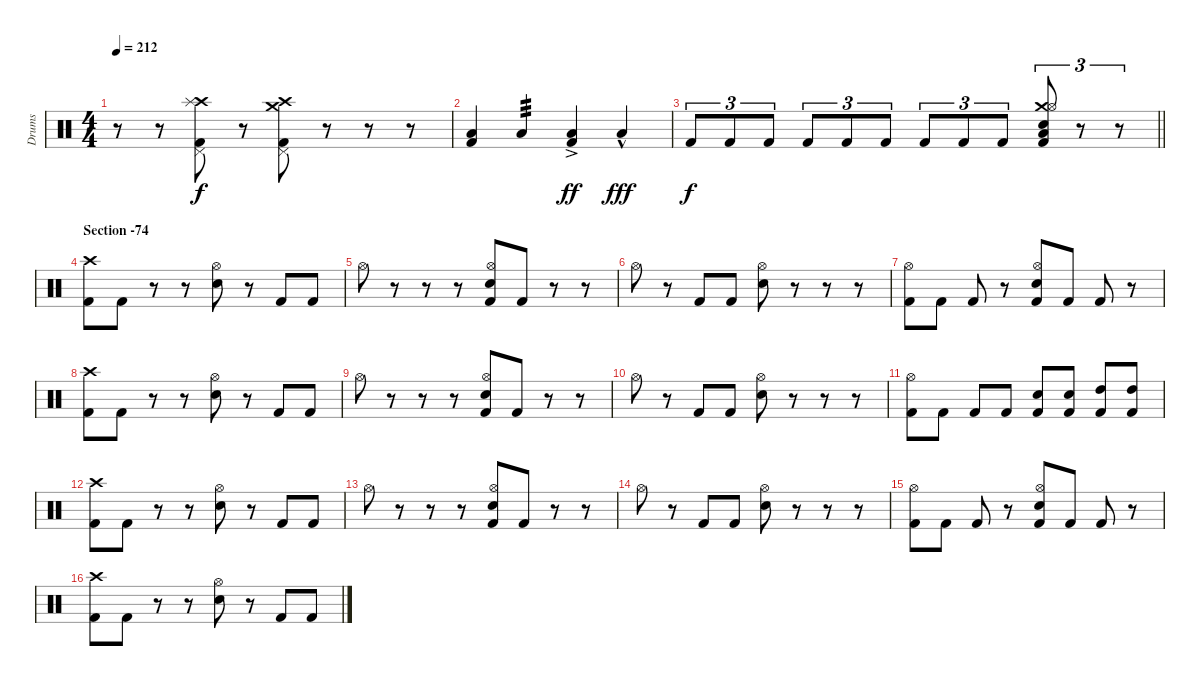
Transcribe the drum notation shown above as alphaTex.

\track ("Drums" "Drums") {instrument percussion}
\staff {score}
\articulation defaults
\ts (4 4)
\tempo 212
\clef neutral
\ks c
r.8{dy f} r.8 ("Crash high (hit)" "Splash (hit)" "Pedal Hi-Hat (hit)" "Kick (hit) 2").8 r.8 ("Crash medium (hit)" "Crash high (hit)" "Pedal Hi-Hat (hit)" "Kick (hit) 2").8 r.8 r.8 r.8 |
("Low Tom (hit)" "Kick (hit) 2").4 "Low Tom (hit)".4{tp 3} ("Low Tom (hit)"{ac} "Kick (hit) 2").4{dy ff} "Low Tom (hit)"{hac}.4{dy fff} |
\barLineRight lightlight "Kick (hit) 2".8{tu (3 2) dy f} "Kick (hit) 2".8{tu (3 2)} "Kick (hit) 2".8{tu (3 2)} "Kick (hit) 2".8{tu (3 2)} "Kick (hit) 2".8{tu (3 2)} "Kick (hit) 2".8{tu (3 2)} "Kick (hit) 2".8{tu (3 2)} "Kick (hit) 2".8{tu (3 2)} "Kick (hit) 2".8{tu (3 2)}
("Crash medium (hit)" "Hi-Hat (open)" "Snare (hit) 2" "Low Tom (hit)" "Kick (hit) 2").8{tu (3 2)} r.8{tu (3 2)} r.8{tu (3 2)} |
\section ("" "Section -74")
("Crash high (hit)" "Kick (hit) 2").8 "Kick (hit) 2".8 r.8 r.8 ("Hi-Hat (open)" "Snare (hit) 2").8 r.8 "Kick (hit) 2".8 "Kick (hit) 2".8 |
"Hi-Hat (open)".8 r.8 r.8 r.8 ("Hi-Hat (open)" "Snare (hit) 2" "Kick (hit) 2").8 "Kick (hit) 2".8 r.8 r.8 |
"Hi-Hat (open)".8 r.8 "Kick (hit) 2".8 "Kick (hit) 2".8 ("Hi-Hat (open)" "Snare (hit) 2").8 r.8 r.8 r.8 |
("Hi-Hat (open)" "Kick (hit) 2").8 "Kick (hit) 2".8 "Kick (hit) 2".8 r.8 ("Hi-Hat (open)" "Snare (hit) 2" "Kick (hit) 2").8 "Kick (hit) 2".8 "Kick (hit) 2".8 r.8 |
("Crash high (hit)" "Kick (hit) 2").8 "Kick (hit) 2".8 r.8 r.8 ("Hi-Hat (open)" "Snare (hit) 2").8 r.8 "Kick (hit) 2".8 "Kick (hit) 2".8 |
"Hi-Hat (open)".8 r.8 r.8 r.8 ("Hi-Hat (open)" "Snare (hit) 2" "Kick (hit) 2").8 "Kick (hit) 2".8 r.8 r.8 |
"Hi-Hat (open)".8 r.8 "Kick (hit) 2".8 "Kick (hit) 2".8 ("Hi-Hat (open)" "Snare (hit) 2").8 r.8 r.8 r.8 |
("Hi-Hat (open)" "Kick (hit) 2").8 "Kick (hit) 2".8 "Kick (hit) 2".8 "Kick (hit) 2".8 ("Snare (hit) 2" "Kick (hit) 2").8 ("Snare (hit) 2" "Kick (hit) 2").8 ("High Tom (hit)" "Kick (hit) 2").8 ("High Tom (hit)" "Kick (hit) 2").8 |
("Crash high (hit)" "Kick (hit) 2").8 "Kick (hit) 2".8 r.8 r.8 ("Hi-Hat (open)" "Snare (hit) 2").8 r.8 "Kick (hit) 2".8 "Kick (hit) 2".8 |
"Hi-Hat (open)".8 r.8 r.8 r.8 ("Hi-Hat (open)" "Snare (hit) 2" "Kick (hit) 2").8 "Kick (hit) 2".8 r.8 r.8 |
"Hi-Hat (open)".8 r.8 "Kick (hit) 2".8 "Kick (hit) 2".8 ("Hi-Hat (open)" "Snare (hit) 2").8 r.8 r.8 r.8 |
("Hi-Hat (open)" "Kick (hit) 2").8 "Kick (hit) 2".8 "Kick (hit) 2".8 r.8 ("Hi-Hat (open)" "Snare (hit) 2" "Kick (hit) 2").8 "Kick (hit) 2".8 "Kick (hit) 2".8 r.8 |
("Crash high (hit)" "Kick (hit) 2").8 "Kick (hit) 2".8 r.8 r.8 ("Hi-Hat (open)" "Snare (hit) 2").8 r.8 "Kick (hit) 2".8 "Kick (hit) 2".8
